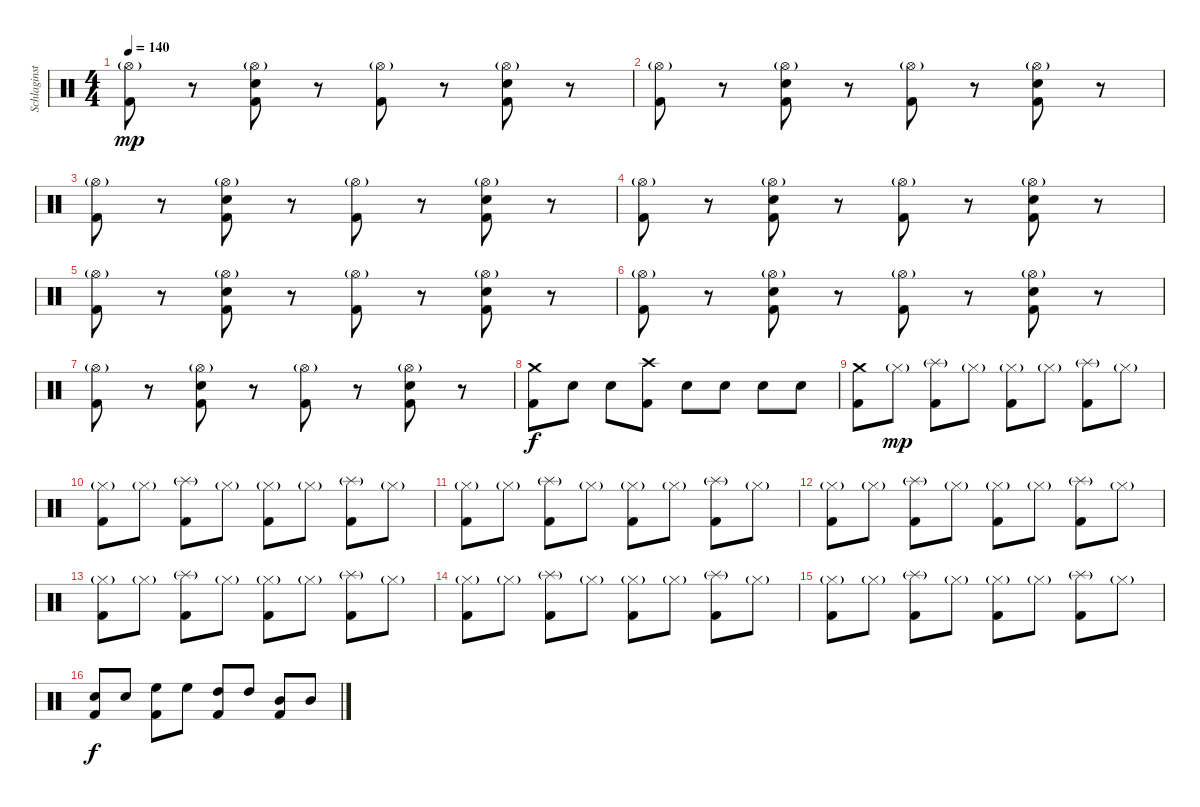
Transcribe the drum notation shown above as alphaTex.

\track ("Schlaginstrumente - Auswahl" "Schlaginst") {instrument percussion}
\staff {score}
\articulation defaults
\ts (4 4)
\tempo 140
\clef neutral
\ks c
("Hi-Hat (open)"{g} "Kick (hit) 2").8{dy mp} r.8 ("Hi-Hat (open)"{g} "Electric Snare (hit)" "Kick (hit) 2").8 r.8 ("Hi-Hat (open)"{g} "Kick (hit) 2").8 r.8 ("Hi-Hat (open)"{g} "Electric Snare (hit)" "Kick (hit) 2").8 r.8 |
("Hi-Hat (open)"{g} "Kick (hit) 2").8 r.8 ("Hi-Hat (open)"{g} "Electric Snare (hit)" "Kick (hit) 2").8 r.8 ("Hi-Hat (open)"{g} "Kick (hit) 2").8 r.8 ("Hi-Hat (open)"{g} "Electric Snare (hit)" "Kick (hit) 2").8 r.8 |
("Hi-Hat (open)"{g} "Kick (hit) 2").8 r.8 ("Hi-Hat (open)"{g} "Electric Snare (hit)" "Kick (hit) 2").8 r.8 ("Hi-Hat (open)"{g} "Kick (hit) 2").8 r.8 ("Hi-Hat (open)"{g} "Electric Snare (hit)" "Kick (hit) 2").8 r.8 |
("Hi-Hat (open)"{g} "Kick (hit) 2").8 r.8 ("Hi-Hat (open)"{g} "Electric Snare (hit)" "Kick (hit) 2").8 r.8 ("Hi-Hat (open)"{g} "Kick (hit) 2").8 r.8 ("Hi-Hat (open)"{g} "Electric Snare (hit)" "Kick (hit) 2").8 r.8 |
("Hi-Hat (open)"{g} "Kick (hit) 2").8 r.8 ("Hi-Hat (open)"{g} "Electric Snare (hit)" "Kick (hit) 2").8 r.8 ("Hi-Hat (open)"{g} "Kick (hit) 2").8 r.8 ("Hi-Hat (open)"{g} "Electric Snare (hit)" "Kick (hit) 2").8 r.8 |
("Hi-Hat (open)"{g} "Kick (hit) 2").8 r.8 ("Hi-Hat (open)"{g} "Electric Snare (hit)" "Kick (hit) 2").8 r.8 ("Hi-Hat (open)"{g} "Kick (hit) 2").8 r.8 ("Hi-Hat (open)"{g} "Electric Snare (hit)" "Kick (hit) 2").8 r.8 |
("Hi-Hat (open)"{g} "Kick (hit) 2").8 r.8 ("Hi-Hat (open)"{g} "Electric Snare (hit)" "Kick (hit) 2").8 r.8 ("Hi-Hat (open)"{g} "Kick (hit) 2").8 r.8 ("Hi-Hat (open)"{g} "Electric Snare (hit)" "Kick (hit) 2").8 r.8 |
("Crash medium (hit)" "Kick (hit) 2").8{dy f} "Electric Snare (hit)".8 "Electric Snare (hit)".8 ("Crash high (hit)" "Kick (hit) 2").8 "Electric Snare (hit)".8 "Electric Snare (hit)".8 "Electric Snare (hit)".8 "Electric Snare (hit)".8 |
("Crash medium (hit)" "Kick (hit) 2").8 "Hi-Hat (closed)"{g}.8{dy mp} ("Splash (hit)"{g} "Kick (hit) 2").8 "Hi-Hat (closed)"{g}.8 ("Hi-Hat (closed)"{g} "Kick (hit) 2").8 "Hi-Hat (closed)"{g}.8 ("Splash (hit)"{g} "Kick (hit) 2").8 "Hi-Hat (closed)"{g}.8 |
("Hi-Hat (closed)"{g} "Kick (hit) 2").8 "Hi-Hat (closed)"{g}.8 ("Splash (hit)"{g} "Kick (hit) 2").8 "Hi-Hat (closed)"{g}.8 ("Hi-Hat (closed)"{g} "Kick (hit) 2").8 "Hi-Hat (closed)"{g}.8 ("Splash (hit)"{g} "Kick (hit) 2").8 "Hi-Hat (closed)"{g}.8 |
("Hi-Hat (closed)"{g} "Kick (hit) 2").8 "Hi-Hat (closed)"{g}.8 ("Splash (hit)"{g} "Kick (hit) 2").8 "Hi-Hat (closed)"{g}.8 ("Hi-Hat (closed)"{g} "Kick (hit) 2").8 "Hi-Hat (closed)"{g}.8 ("Splash (hit)"{g} "Kick (hit) 2").8 "Hi-Hat (closed)"{g}.8 |
("Hi-Hat (closed)"{g} "Kick (hit) 2").8 "Hi-Hat (closed)"{g}.8 ("Splash (hit)"{g} "Kick (hit) 2").8 "Hi-Hat (closed)"{g}.8 ("Hi-Hat (closed)"{g} "Kick (hit) 2").8 "Hi-Hat (closed)"{g}.8 ("Splash (hit)"{g} "Kick (hit) 2").8 "Hi-Hat (closed)"{g}.8 |
("Hi-Hat (closed)"{g} "Kick (hit) 2").8 "Hi-Hat (closed)"{g}.8 ("Splash (hit)"{g} "Kick (hit) 2").8 "Hi-Hat (closed)"{g}.8 ("Hi-Hat (closed)"{g} "Kick (hit) 2").8 "Hi-Hat (closed)"{g}.8 ("Splash (hit)"{g} "Kick (hit) 2").8 "Hi-Hat (closed)"{g}.8 |
("Hi-Hat (closed)"{g} "Kick (hit) 2").8 "Hi-Hat (closed)"{g}.8 ("Splash (hit)"{g} "Kick (hit) 2").8 "Hi-Hat (closed)"{g}.8 ("Hi-Hat (closed)"{g} "Kick (hit) 2").8 "Hi-Hat (closed)"{g}.8 ("Splash (hit)"{g} "Kick (hit) 2").8 "Hi-Hat (closed)"{g}.8 |
("Hi-Hat (closed)"{g} "Kick (hit) 2").8 "Hi-Hat (closed)"{g}.8 ("Splash (hit)"{g} "Kick (hit) 2").8 "Hi-Hat (closed)"{g}.8 ("Hi-Hat (closed)"{g} "Kick (hit) 2").8 "Hi-Hat (closed)"{g}.8 ("Splash (hit)"{g} "Kick (hit) 2").8 "Hi-Hat (closed)"{g}.8 |
("Electric Snare (hit)" "Kick (hit) 2").8{dy f} "Electric Snare (hit)".8 ("High Floor Tom (hit)" "Kick (hit) 2").8 "High Floor Tom (hit)".8 ("High Tom (hit)" "Kick (hit) 2").8 "High Tom (hit)".8 ("Mid Tom (hit)" "Kick (hit) 2").8 "Mid Tom (hit)".8
